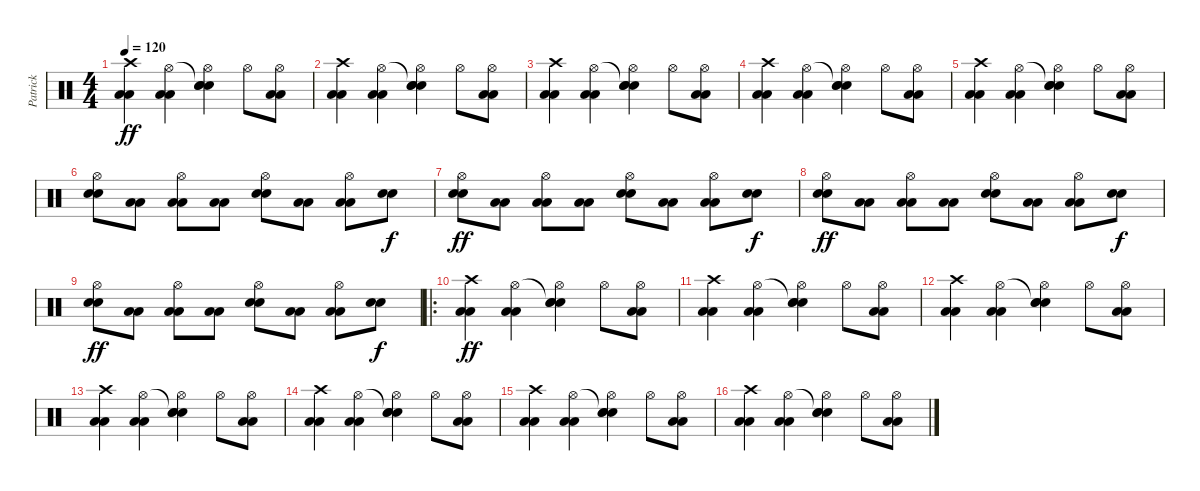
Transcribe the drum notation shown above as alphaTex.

\track ("Patrick" "Patrick") {instrument percussion}
\staff {score}
\articulation defaults
\ts (4 4)
\tempo 120
\clef neutral
\ks c
("Crash high (hit)" "Low Floor Tom (hit)" "Low Floor Tom (hit)").4{dy ff} ("Hi-Hat (open)" "Low Floor Tom (hit)" "Low Floor Tom (hit)").4 ("Snare (hit)"{t} "Hi-Hat (open)" "Electric Snare (hit)" "Electric Snare (hit)").4 "Hi-Hat (open)".8 ("Hi-Hat (open)" "Low Floor Tom (hit)" "Low Floor Tom (hit)").8 |
("Crash high (hit)" "Low Floor Tom (hit)" "Low Floor Tom (hit)").4 ("Hi-Hat (open)" "Low Floor Tom (hit)" "Low Floor Tom (hit)").4 ("Snare (hit)"{t} "Hi-Hat (open)" "Electric Snare (hit)" "Electric Snare (hit)").4 "Hi-Hat (open)".8 ("Hi-Hat (open)" "Low Floor Tom (hit)" "Low Floor Tom (hit)").8 |
("Crash high (hit)" "Low Floor Tom (hit)" "Low Floor Tom (hit)").4 ("Hi-Hat (open)" "Low Floor Tom (hit)" "Low Floor Tom (hit)").4 ("Snare (hit)"{t} "Hi-Hat (open)" "Electric Snare (hit)" "Electric Snare (hit)").4 "Hi-Hat (open)".8 ("Hi-Hat (open)" "Low Floor Tom (hit)" "Low Floor Tom (hit)").8 |
("Crash high (hit)" "Low Floor Tom (hit)" "Low Floor Tom (hit)").4 ("Hi-Hat (open)" "Low Floor Tom (hit)" "Low Floor Tom (hit)").4 ("Snare (hit)"{t} "Hi-Hat (open)" "Electric Snare (hit)" "Electric Snare (hit)").4 "Hi-Hat (open)".8 ("Hi-Hat (open)" "Low Floor Tom (hit)" "Low Floor Tom (hit)").8 |
("Crash high (hit)" "Low Floor Tom (hit)" "Low Floor Tom (hit)").4 ("Hi-Hat (open)" "Low Floor Tom (hit)" "Low Floor Tom (hit)").4 ("Snare (hit)"{t} "Hi-Hat (open)" "Electric Snare (hit)" "Electric Snare (hit)").4 "Hi-Hat (open)".8 ("Hi-Hat (open)" "Low Floor Tom (hit)" "Low Floor Tom (hit)").8 |
("Hi-Hat (open)" "Electric Snare (hit)" "Electric Snare (hit)").8 ("Low Floor Tom (hit)" "Low Floor Tom (hit)").8 ("Hi-Hat (open)" "Low Floor Tom (hit)" "Low Floor Tom (hit)").8 ("Low Floor Tom (hit)" "Low Floor Tom (hit)").8 ("Hi-Hat (open)" "Electric Snare (hit)" "Electric Snare (hit)").8 ("Low Floor Tom (hit)" "Low Floor Tom (hit)").8 ("Hi-Hat (open)" "Low Floor Tom (hit)" "Low Floor Tom (hit)").8 ("Electric Snare (hit)" "Electric Snare (hit)").8{dy f} |
("Hi-Hat (open)" "Electric Snare (hit)" "Electric Snare (hit)").8{dy ff} ("Low Floor Tom (hit)" "Low Floor Tom (hit)").8 ("Hi-Hat (open)" "Low Floor Tom (hit)" "Low Floor Tom (hit)").8 ("Low Floor Tom (hit)" "Low Floor Tom (hit)").8 ("Hi-Hat (open)" "Electric Snare (hit)" "Electric Snare (hit)").8 ("Low Floor Tom (hit)" "Low Floor Tom (hit)").8 ("Hi-Hat (open)" "Low Floor Tom (hit)" "Low Floor Tom (hit)").8 ("Electric Snare (hit)" "Electric Snare (hit)").8{dy f} |
("Hi-Hat (open)" "Electric Snare (hit)" "Electric Snare (hit)").8{dy ff} ("Low Floor Tom (hit)" "Low Floor Tom (hit)").8 ("Hi-Hat (open)" "Low Floor Tom (hit)" "Low Floor Tom (hit)").8 ("Low Floor Tom (hit)" "Low Floor Tom (hit)").8 ("Hi-Hat (open)" "Electric Snare (hit)" "Electric Snare (hit)").8 ("Low Floor Tom (hit)" "Low Floor Tom (hit)").8 ("Hi-Hat (open)" "Low Floor Tom (hit)" "Low Floor Tom (hit)").8 ("Electric Snare (hit)" "Electric Snare (hit)").8{dy f} |
("Hi-Hat (open)" "Electric Snare (hit)" "Electric Snare (hit)").8{dy ff} ("Low Floor Tom (hit)" "Low Floor Tom (hit)").8 ("Hi-Hat (open)" "Low Floor Tom (hit)" "Low Floor Tom (hit)").8 ("Low Floor Tom (hit)" "Low Floor Tom (hit)").8 ("Hi-Hat (open)" "Electric Snare (hit)" "Electric Snare (hit)").8 ("Low Floor Tom (hit)" "Low Floor Tom (hit)").8 ("Hi-Hat (open)" "Low Floor Tom (hit)" "Low Floor Tom (hit)").8 ("Electric Snare (hit)" "Electric Snare (hit)").8{dy f} |
\ro
("Crash high (hit)" "Low Floor Tom (hit)" "Low Floor Tom (hit)").4{dy ff} ("Hi-Hat (open)" "Low Floor Tom (hit)" "Low Floor Tom (hit)").4 ("Snare (hit)"{t} "Hi-Hat (open)" "Electric Snare (hit)" "Electric Snare (hit)").4 "Hi-Hat (open)".8 ("Hi-Hat (open)" "Low Floor Tom (hit)" "Low Floor Tom (hit)").8 |
("Crash high (hit)" "Low Floor Tom (hit)" "Low Floor Tom (hit)").4 ("Hi-Hat (open)" "Low Floor Tom (hit)" "Low Floor Tom (hit)").4 ("Snare (hit)"{t} "Hi-Hat (open)" "Electric Snare (hit)" "Electric Snare (hit)").4 "Hi-Hat (open)".8 ("Hi-Hat (open)" "Low Floor Tom (hit)" "Low Floor Tom (hit)").8 |
("Crash high (hit)" "Low Floor Tom (hit)" "Low Floor Tom (hit)").4 ("Hi-Hat (open)" "Low Floor Tom (hit)" "Low Floor Tom (hit)").4 ("Snare (hit)"{t} "Hi-Hat (open)" "Electric Snare (hit)" "Electric Snare (hit)").4 "Hi-Hat (open)".8 ("Hi-Hat (open)" "Low Floor Tom (hit)" "Low Floor Tom (hit)").8 |
("Crash high (hit)" "Low Floor Tom (hit)" "Low Floor Tom (hit)").4 ("Hi-Hat (open)" "Low Floor Tom (hit)" "Low Floor Tom (hit)").4 ("Snare (hit)"{t} "Hi-Hat (open)" "Electric Snare (hit)" "Electric Snare (hit)").4 "Hi-Hat (open)".8 ("Hi-Hat (open)" "Low Floor Tom (hit)" "Low Floor Tom (hit)").8 |
("Crash high (hit)" "Low Floor Tom (hit)" "Low Floor Tom (hit)").4 ("Hi-Hat (open)" "Low Floor Tom (hit)" "Low Floor Tom (hit)").4 ("Snare (hit)"{t} "Hi-Hat (open)" "Electric Snare (hit)" "Electric Snare (hit)").4 "Hi-Hat (open)".8 ("Hi-Hat (open)" "Low Floor Tom (hit)" "Low Floor Tom (hit)").8 |
("Crash high (hit)" "Low Floor Tom (hit)" "Low Floor Tom (hit)").4 ("Hi-Hat (open)" "Low Floor Tom (hit)" "Low Floor Tom (hit)").4 ("Snare (hit)"{t} "Hi-Hat (open)" "Electric Snare (hit)" "Electric Snare (hit)").4 "Hi-Hat (open)".8 ("Hi-Hat (open)" "Low Floor Tom (hit)" "Low Floor Tom (hit)").8 |
("Crash high (hit)" "Low Floor Tom (hit)" "Low Floor Tom (hit)").4 ("Hi-Hat (open)" "Low Floor Tom (hit)" "Low Floor Tom (hit)").4 ("Snare (hit)"{t} "Hi-Hat (open)" "Electric Snare (hit)" "Electric Snare (hit)").4 "Hi-Hat (open)".8 ("Hi-Hat (open)" "Low Floor Tom (hit)" "Low Floor Tom (hit)").8
